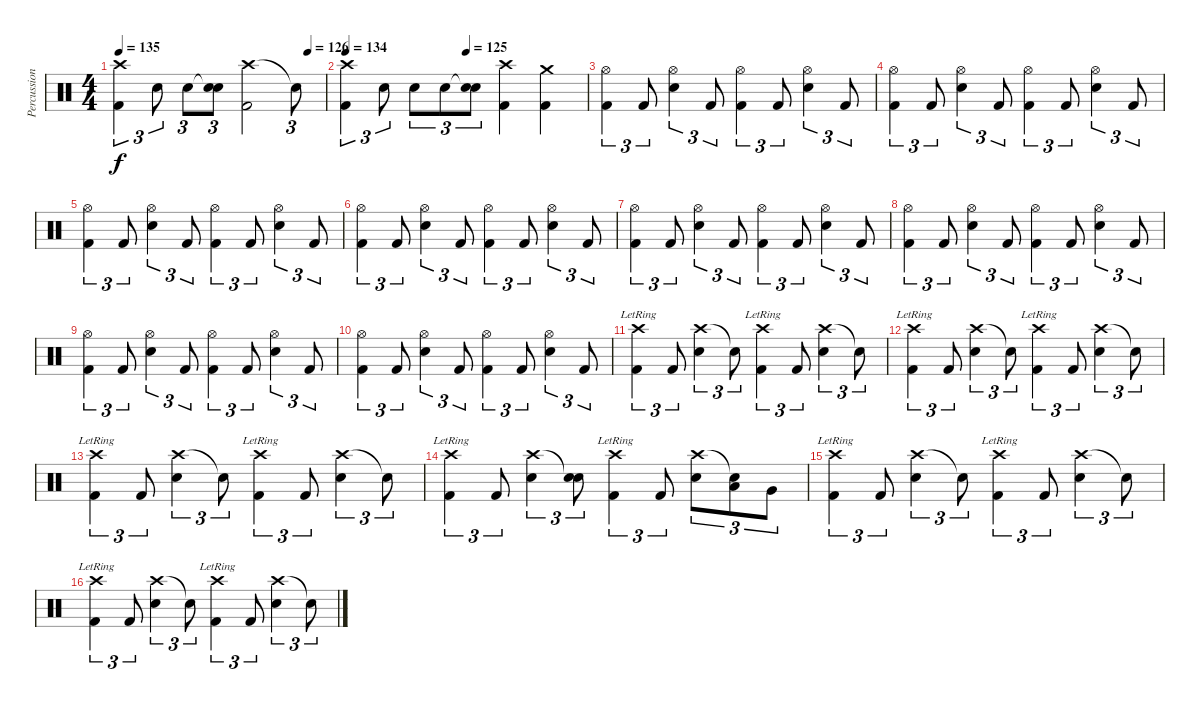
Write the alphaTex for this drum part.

\track ("Percussion" "Percussion") {instrument percussion}
\staff {score}
\articulation defaults
\ts (4 4)
\tempo 135
\tempo (126 0.9166666666666666)
\tempo 135
\clef neutral
\ks c
("Crash high (hit)" "Kick (hit) 2").4{tu (3 2) dy f} "Snare (hit) 2".8{tu (3 2)} "Snare (hit) 2".8{tu (3 2)} ("Snare (hit)"{t} "Snare (hit) 2").8{tu (3 2)} ("Crash high (hit)" "Kick (hit) 2").2 "Snare (hit)"{t}.8{tu (3 2)} |
\tempo 134
\tempo (125 0.5)
("Crash high (hit)" "Kick (hit) 2").4{tu (3 2)} "Snare (hit) 2".8{tu (3 2)} "Snare (hit) 2".8{tu (3 2)} "Snare (hit) 2".8{tu (3 2)} ("Snare (hit)"{t} "Snare (hit) 2").8{tu (3 2)} ("Crash high (hit)" "Kick (hit) 2").4 ("Crash medium (hit)" "Kick (hit) 2").4 |
("Hi-Hat (open)" "Kick (hit) 2").4{tu (3 2)} "Kick (hit) 2".8{tu (3 2)} ("Hi-Hat (open)" "Snare (hit) 2").4{tu (3 2)} "Kick (hit) 2".8{tu (3 2)} ("Hi-Hat (open)" "Kick (hit) 2").4{tu (3 2)} "Kick (hit) 2".8{tu (3 2)} ("Hi-Hat (open)" "Snare (hit) 2").4{tu (3 2)} "Kick (hit) 2".8{tu (3 2)} |
("Hi-Hat (open)" "Kick (hit) 2").4{tu (3 2)} "Kick (hit) 2".8{tu (3 2)} ("Hi-Hat (open)" "Snare (hit) 2").4{tu (3 2)} "Kick (hit) 2".8{tu (3 2)} ("Hi-Hat (open)" "Kick (hit) 2").4{tu (3 2)} "Kick (hit) 2".8{tu (3 2)} ("Hi-Hat (open)" "Snare (hit) 2").4{tu (3 2)} "Kick (hit) 2".8{tu (3 2)} |
("Hi-Hat (open)" "Kick (hit) 2").4{tu (3 2)} "Kick (hit) 2".8{tu (3 2)} ("Hi-Hat (open)" "Snare (hit) 2").4{tu (3 2)} "Kick (hit) 2".8{tu (3 2)} ("Hi-Hat (open)" "Kick (hit) 2").4{tu (3 2)} "Kick (hit) 2".8{tu (3 2)} ("Hi-Hat (open)" "Snare (hit) 2").4{tu (3 2)} "Kick (hit) 2".8{tu (3 2)} |
("Hi-Hat (open)" "Kick (hit) 2").4{tu (3 2)} "Kick (hit) 2".8{tu (3 2)} ("Hi-Hat (open)" "Snare (hit) 2").4{tu (3 2)} "Kick (hit) 2".8{tu (3 2)} ("Hi-Hat (open)" "Kick (hit) 2").4{tu (3 2)} "Kick (hit) 2".8{tu (3 2)} ("Hi-Hat (open)" "Snare (hit) 2").4{tu (3 2)} "Kick (hit) 2".8{tu (3 2)} |
("Hi-Hat (open)" "Kick (hit) 2").4{tu (3 2)} "Kick (hit) 2".8{tu (3 2)} ("Hi-Hat (open)" "Snare (hit) 2").4{tu (3 2)} "Kick (hit) 2".8{tu (3 2)} ("Hi-Hat (open)" "Kick (hit) 2").4{tu (3 2)} "Kick (hit) 2".8{tu (3 2)} ("Hi-Hat (open)" "Snare (hit) 2").4{tu (3 2)} "Kick (hit) 2".8{tu (3 2)} |
("Hi-Hat (open)" "Kick (hit) 2").4{tu (3 2)} "Kick (hit) 2".8{tu (3 2)} ("Hi-Hat (open)" "Snare (hit) 2").4{tu (3 2)} "Kick (hit) 2".8{tu (3 2)} ("Hi-Hat (open)" "Kick (hit) 2").4{tu (3 2)} "Kick (hit) 2".8{tu (3 2)} ("Hi-Hat (open)" "Snare (hit) 2").4{tu (3 2)} "Kick (hit) 2".8{tu (3 2)} |
("Hi-Hat (open)" "Kick (hit) 2").4{tu (3 2)} "Kick (hit) 2".8{tu (3 2)} ("Hi-Hat (open)" "Snare (hit) 2").4{tu (3 2)} "Kick (hit) 2".8{tu (3 2)} ("Hi-Hat (open)" "Kick (hit) 2").4{tu (3 2)} "Kick (hit) 2".8{tu (3 2)} ("Hi-Hat (open)" "Snare (hit) 2").4{tu (3 2)} "Kick (hit) 2".8{tu (3 2)} |
("Hi-Hat (open)" "Kick (hit) 2").4{tu (3 2)} "Kick (hit) 2".8{tu (3 2)} ("Hi-Hat (open)" "Snare (hit) 2").4{tu (3 2)} "Kick (hit) 2".8{tu (3 2)} ("Hi-Hat (open)" "Kick (hit) 2").4{tu (3 2)} "Kick (hit) 2".8{tu (3 2)} ("Hi-Hat (open)" "Snare (hit) 2").4{tu (3 2)} "Kick (hit) 2".8{tu (3 2)} |
("Crash high (hit)"{lr} "Kick (hit) 2").4{tu (3 2)} "Kick (hit) 2".8{tu (3 2)} ("Crash high (hit)" "Snare (hit) 2").4{tu (3 2)} "Snare (hit)"{t}.8{tu (3 2)} ("Crash high (hit)"{lr} "Kick (hit) 2").4{tu (3 2)} "Kick (hit) 2".8{tu (3 2)} ("Crash high (hit)" "Snare (hit) 2").4{tu (3 2)} "Snare (hit)"{t}.8{tu (3 2)} |
("Crash high (hit)"{lr} "Kick (hit) 2").4{tu (3 2)} "Kick (hit) 2".8{tu (3 2)} ("Crash high (hit)" "Snare (hit) 2").4{tu (3 2)} "Snare (hit)"{t}.8{tu (3 2)} ("Crash high (hit)"{lr} "Kick (hit) 2").4{tu (3 2)} "Kick (hit) 2".8{tu (3 2)} ("Crash high (hit)" "Snare (hit) 2").4{tu (3 2)} "Snare (hit)"{t}.8{tu (3 2)} |
("Crash high (hit)"{lr} "Kick (hit) 2").4{tu (3 2)} "Kick (hit) 2".8{tu (3 2)} ("Crash high (hit)" "Snare (hit) 2").4{tu (3 2)} "Snare (hit)"{t}.8{tu (3 2)} ("Crash high (hit)"{lr} "Kick (hit) 2").4{tu (3 2)} "Kick (hit) 2".8{tu (3 2)} ("Crash high (hit)" "Snare (hit) 2").4{tu (3 2)} "Snare (hit)"{t}.8{tu (3 2)} |
("Crash high (hit)"{lr} "Kick (hit) 2").4{tu (3 2)} "Kick (hit) 2".8{tu (3 2)} ("Crash high (hit)" "Snare (hit) 2").4{tu (3 2)} ("Snare (hit)"{t} "Snare (hit) 2").8{tu (3 2)} ("Crash high (hit)"{lr} "Kick (hit) 2").4{tu (3 2)} "Kick (hit) 2".8{tu (3 2)} ("Crash high (hit)" "Snare (hit) 2").8{tu (3 2)} ("Snare (hit)"{t} "Low Tom (hit)").8{tu (3 2)} "Very Low Tom (hit)".8{tu (3 2)} |
("Crash high (hit)"{lr} "Kick (hit) 2").4{tu (3 2)} "Kick (hit) 2".8{tu (3 2)} ("Crash high (hit)" "Snare (hit) 2").4{tu (3 2)} "Snare (hit)"{t}.8{tu (3 2)} ("Crash high (hit)"{lr} "Kick (hit) 2").4{tu (3 2)} "Kick (hit) 2".8{tu (3 2)} ("Crash high (hit)" "Snare (hit) 2").4{tu (3 2)} "Snare (hit)"{t}.8{tu (3 2)} |
("Crash high (hit)"{lr} "Kick (hit) 2").4{tu (3 2)} "Kick (hit) 2".8{tu (3 2)} ("Crash high (hit)" "Snare (hit) 2").4{tu (3 2)} "Snare (hit)"{t}.8{tu (3 2)} ("Crash high (hit)"{lr} "Kick (hit) 2").4{tu (3 2)} "Kick (hit) 2".8{tu (3 2)} ("Crash high (hit)" "Snare (hit) 2").4{tu (3 2)} "Snare (hit)"{t}.8{tu (3 2)}
